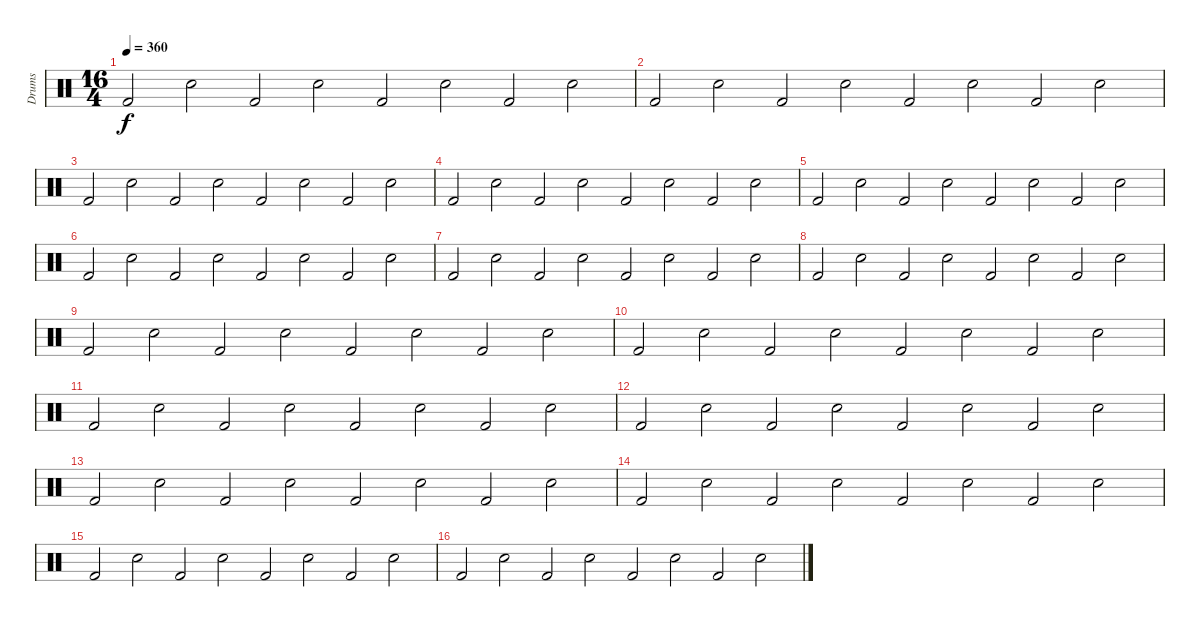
\track ("Drums" "Drums") {instrument percussion}
\staff {score}
\articulation defaults
\ts (16 4)
\tempo 360
\clef neutral
\ks c "Kick (hit) 2".2{dy f} "Snare (hit) 2".2 "Kick (hit) 2".2 "Snare (hit) 2".2 "Kick (hit) 2".2 "Snare (hit) 2".2 "Kick (hit) 2".2 "Snare (hit) 2".2
|
"Kick (hit) 2".2 "Snare (hit) 2".2 "Kick (hit) 2".2 "Snare (hit) 2".2 "Kick (hit) 2".2 "Snare (hit) 2".2 "Kick (hit) 2".2 "Snare (hit) 2".2 |
"Kick (hit) 2".2 "Snare (hit) 2".2 "Kick (hit) 2".2 "Snare (hit) 2".2 "Kick (hit) 2".2 "Snare (hit) 2".2 "Kick (hit) 2".2 "Snare (hit) 2".2 |
"Kick (hit) 2".2 "Snare (hit) 2".2 "Kick (hit) 2".2 "Snare (hit) 2".2 "Kick (hit) 2".2 "Snare (hit) 2".2 "Kick (hit) 2".2 "Snare (hit) 2".2 |
"Kick (hit) 2".2 "Snare (hit) 2".2 "Kick (hit) 2".2 "Snare (hit) 2".2 "Kick (hit) 2".2 "Snare (hit) 2".2 "Kick (hit) 2".2 "Snare (hit) 2".2 |
"Kick (hit) 2".2 "Snare (hit) 2".2 "Kick (hit) 2".2 "Snare (hit) 2".2 "Kick (hit) 2".2 "Snare (hit) 2".2 "Kick (hit) 2".2 "Snare (hit) 2".2 |
"Kick (hit) 2".2 "Snare (hit) 2".2 "Kick (hit) 2".2 "Snare (hit) 2".2 "Kick (hit) 2".2 "Snare (hit) 2".2 "Kick (hit) 2".2 "Snare (hit) 2".2 |
"Kick (hit) 2".2 "Snare (hit) 2".2 "Kick (hit) 2".2 "Snare (hit) 2".2 "Kick (hit) 2".2 "Snare (hit) 2".2 "Kick (hit) 2".2 "Snare (hit) 2".2 |
"Kick (hit) 2".2 "Snare (hit) 2".2 "Kick (hit) 2".2 "Snare (hit) 2".2 "Kick (hit) 2".2 "Snare (hit) 2".2 "Kick (hit) 2".2 "Snare (hit) 2".2 |
"Kick (hit) 2".2 "Snare (hit) 2".2 "Kick (hit) 2".2 "Snare (hit) 2".2 "Kick (hit) 2".2 "Snare (hit) 2".2 "Kick (hit) 2".2 "Snare (hit) 2".2 |
"Kick (hit) 2".2 "Snare (hit) 2".2 "Kick (hit) 2".2 "Snare (hit) 2".2 "Kick (hit) 2".2 "Snare (hit) 2".2 "Kick (hit) 2".2 "Snare (hit) 2".2 |
"Kick (hit) 2".2 "Snare (hit) 2".2 "Kick (hit) 2".2 "Snare (hit) 2".2 "Kick (hit) 2".2 "Snare (hit) 2".2 "Kick (hit) 2".2 "Snare (hit) 2".2 |
"Kick (hit) 2".2 "Snare (hit) 2".2 "Kick (hit) 2".2 "Snare (hit) 2".2 "Kick (hit) 2".2 "Snare (hit) 2".2 "Kick (hit) 2".2 "Snare (hit) 2".2 |
"Kick (hit) 2".2 "Snare (hit) 2".2 "Kick (hit) 2".2 "Snare (hit) 2".2 "Kick (hit) 2".2 "Snare (hit) 2".2 "Kick (hit) 2".2 "Snare (hit) 2".2 |
"Kick (hit) 2".2 "Snare (hit) 2".2 "Kick (hit) 2".2 "Snare (hit) 2".2 "Kick (hit) 2".2 "Snare (hit) 2".2 "Kick (hit) 2".2 "Snare (hit) 2".2 |
"Kick (hit) 2".2 "Snare (hit) 2".2 "Kick (hit) 2".2 "Snare (hit) 2".2 "Kick (hit) 2".2 "Snare (hit) 2".2 "Kick (hit) 2".2 "Snare (hit) 2".2
